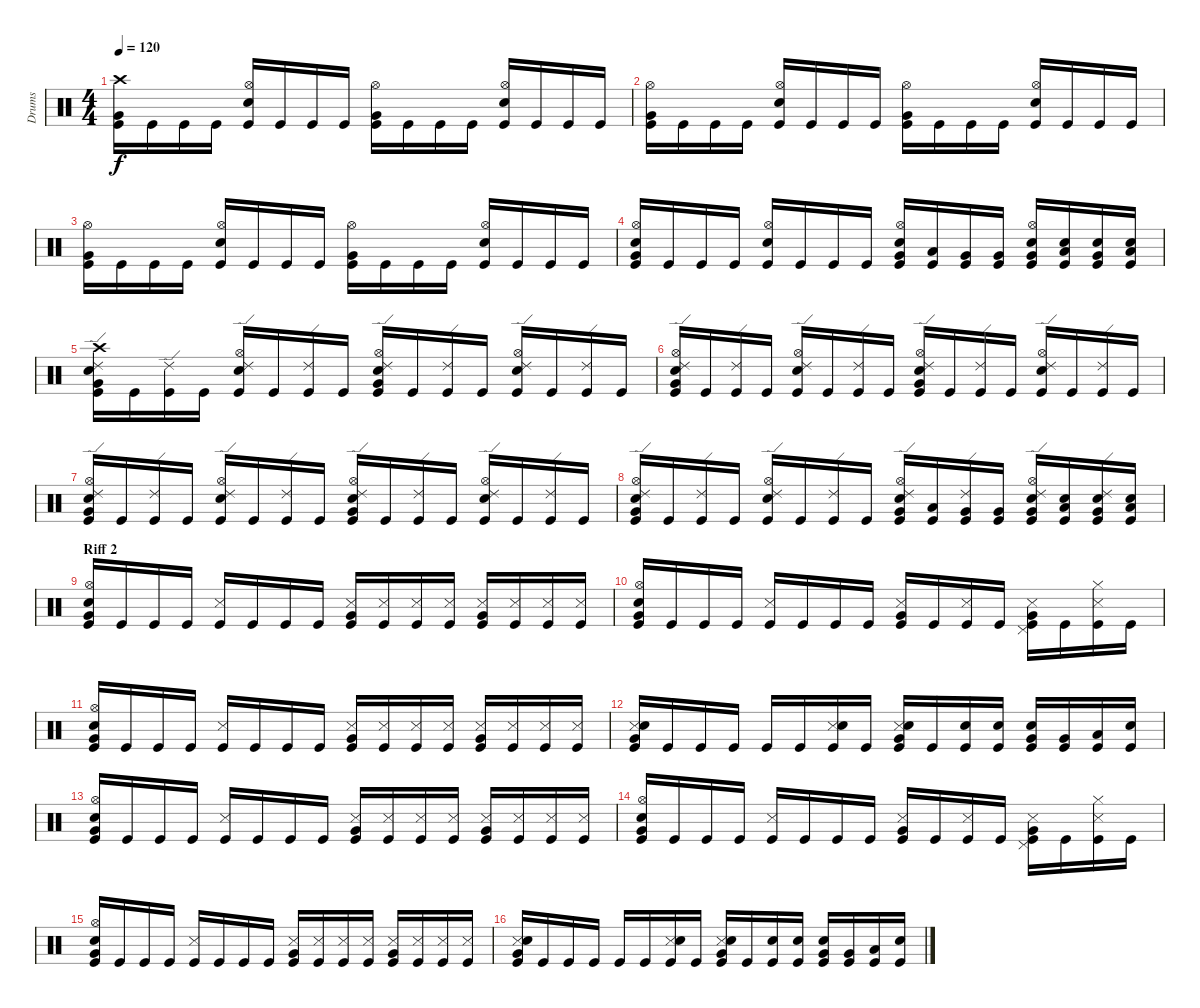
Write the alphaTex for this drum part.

\track ("Drums" "Drums") {instrument percussion}
\staff {score}
\articulation defaults
\ts (4 4)
\tempo 120
\clef neutral
\ks c
("Crash high (hit)" "Very Low Tom (hit)" "Kick (hit)").16{dy f} "Kick (hit)".16 "Kick (hit)".16 "Kick (hit)".16 ("Hi-Hat (open)" "Snare (hit) 2" "Kick (hit)").16 "Kick (hit)".16 "Kick (hit)".16 "Kick (hit)".16 ("Hi-Hat (open)" "Very Low Tom (hit)" "Kick (hit)").16 "Kick (hit)".16 "Kick (hit)".16 "Kick (hit)".16 ("Hi-Hat (open)" "Snare (hit) 2" "Kick (hit)").16 "Kick (hit)".16 "Kick (hit)".16 "Kick (hit)".16 |
("Hi-Hat (open)" "Very Low Tom (hit)" "Kick (hit)").16 "Kick (hit)".16 "Kick (hit)".16 "Kick (hit)".16 ("Hi-Hat (open)" "Snare (hit) 2" "Kick (hit)").16 "Kick (hit)".16 "Kick (hit)".16 "Kick (hit)".16 ("Hi-Hat (open)" "Very Low Tom (hit)" "Kick (hit)").16 "Kick (hit)".16 "Kick (hit)".16 "Kick (hit)".16 ("Hi-Hat (open)" "Snare (hit) 2" "Kick (hit)").16 "Kick (hit)".16 "Kick (hit)".16 "Kick (hit)".16 |
("Hi-Hat (open)" "Very Low Tom (hit)" "Kick (hit)").16 "Kick (hit)".16 "Kick (hit)".16 "Kick (hit)".16 ("Hi-Hat (open)" "Snare (hit) 2" "Kick (hit)").16 "Kick (hit)".16 "Kick (hit)".16 "Kick (hit)".16 ("Hi-Hat (open)" "Very Low Tom (hit)" "Kick (hit)").16 "Kick (hit)".16 "Kick (hit)".16 "Kick (hit)".16 ("Hi-Hat (open)" "Snare (hit) 2" "Kick (hit)").16 "Kick (hit)".16 "Kick (hit)".16 "Kick (hit)".16 |
("Hi-Hat (open)" "Snare (hit) 2" "Very Low Tom (hit)" "Kick (hit)").16 "Kick (hit)".16 "Kick (hit)".16 "Kick (hit)".16 ("Hi-Hat (open)" "Snare (hit) 2" "Kick (hit)").16 "Kick (hit)".16 "Kick (hit)".16 "Kick (hit)".16 ("Hi-Hat (open)" "Snare (hit) 2" "Very Low Tom (hit)" "Kick (hit)").16 ("Low Tom (hit)" "Kick (hit)").16 ("Very Low Tom (hit)" "Kick (hit)").16 ("Very Low Tom (hit)" "Kick (hit)").16 ("Hi-Hat (open)" "Snare (hit) 2" "Very Low Tom (hit)" "Kick (hit)").16 ("Snare (hit) 2" "Low Tom (hit)" "Kick (hit)").16 ("Snare (hit) 2" "Very Low Tom (hit)" "Kick (hit)").16 ("Snare (hit) 2" "Low Floor Tom (hit)" "Kick (hit)").16 |
("Crash high (hit)" "Ride (edge) 2" "Snare (hit) 2" "Very Low Tom (hit)" "Kick (hit)").16 "Kick (hit)".16 ("Ride (edge) 2" "Kick (hit)").16 "Kick (hit)".16 ("Hi-Hat (open)" "Ride (edge) 2" "Snare (hit) 2" "Kick (hit)").16 "Kick (hit)".16 ("Ride (edge) 2" "Kick (hit)").16 "Kick (hit)".16 ("Hi-Hat (open)" "Ride (edge) 2" "Snare (hit) 2" "Very Low Tom (hit)" "Kick (hit)").16 "Kick (hit)".16 ("Ride (edge) 2" "Kick (hit)").16 "Kick (hit)".16 ("Hi-Hat (open)" "Ride (edge) 2" "Snare (hit) 2" "Kick (hit)").16 "Kick (hit)".16 ("Ride (edge) 2" "Kick (hit)").16 "Kick (hit)".16 |
("Hi-Hat (open)" "Ride (edge) 2" "Snare (hit) 2" "Very Low Tom (hit)" "Kick (hit)").16 "Kick (hit)".16 ("Ride (edge) 2" "Kick (hit)").16 "Kick (hit)".16 ("Hi-Hat (open)" "Ride (edge) 2" "Snare (hit) 2" "Kick (hit)").16 "Kick (hit)".16 ("Ride (edge) 2" "Kick (hit)").16 "Kick (hit)".16 ("Hi-Hat (open)" "Ride (edge) 2" "Snare (hit) 2" "Very Low Tom (hit)" "Kick (hit)").16 "Kick (hit)".16 ("Ride (edge) 2" "Kick (hit)").16 "Kick (hit)".16 ("Hi-Hat (open)" "Ride (edge) 2" "Snare (hit) 2" "Kick (hit)").16 "Kick (hit)".16 ("Ride (edge) 2" "Kick (hit)").16 "Kick (hit)".16 |
("Hi-Hat (open)" "Ride (edge) 2" "Snare (hit) 2" "Very Low Tom (hit)" "Kick (hit)").16 "Kick (hit)".16 ("Ride (edge) 2" "Kick (hit)").16 "Kick (hit)".16 ("Hi-Hat (open)" "Ride (edge) 2" "Snare (hit) 2" "Kick (hit)").16 "Kick (hit)".16 ("Ride (edge) 2" "Kick (hit)").16 "Kick (hit)".16 ("Hi-Hat (open)" "Ride (edge) 2" "Snare (hit) 2" "Very Low Tom (hit)" "Kick (hit)").16 "Kick (hit)".16 ("Ride (edge) 2" "Kick (hit)").16 "Kick (hit)".16 ("Hi-Hat (open)" "Ride (edge) 2" "Snare (hit) 2" "Kick (hit)").16 "Kick (hit)".16 ("Ride (edge) 2" "Kick (hit)").16 "Kick (hit)".16 |
("Hi-Hat (open)" "Ride (edge) 2" "Snare (hit) 2" "Very Low Tom (hit)" "Kick (hit)").16 "Kick (hit)".16 ("Ride (edge) 2" "Kick (hit)").16 "Kick (hit)".16 ("Hi-Hat (open)" "Ride (edge) 2" "Snare (hit) 2" "Kick (hit)").16 "Kick (hit)".16 ("Ride (edge) 2" "Kick (hit)").16 "Kick (hit)".16 ("Hi-Hat (open)" "Ride (edge) 2" "Snare (hit) 2" "Very Low Tom (hit)" "Kick (hit)").16 ("Low Tom (hit)" "Kick (hit)").16 ("Ride (edge) 2" "Very Low Tom (hit)" "Kick (hit)").16 ("Very Low Tom (hit)" "Kick (hit)").16 ("Hi-Hat (open)" "Ride (edge) 2" "Snare (hit) 2" "Very Low Tom (hit)" "Kick (hit)").16 ("Snare (hit) 2" "Low Tom (hit)" "Kick (hit)").16 ("Ride (edge) 2" "Snare (hit) 2" "Very Low Tom (hit)" "Kick (hit)").16 ("Snare (hit) 2" "Low Floor Tom (hit)" "Kick (hit)").16 |
\section ("" "Riff 2")
("Hi-Hat (open)" "Snare (hit) 2" "Very Low Tom (hit)" "Kick (hit)").16 "Kick (hit)".16 "Kick (hit)".16 "Kick (hit)".16 ("Snare (side stick) 3" "Kick (hit)").16 "Kick (hit)".16 "Kick (hit)".16 "Kick (hit)".16 ("Snare (side stick) 3" "Very Low Tom (hit)" "Kick (hit)").16 ("Snare (side stick) 3" "Kick (hit)").16 ("Snare (side stick) 3" "Kick (hit)").16 ("Snare (side stick) 3" "Kick (hit)").16 ("Snare (side stick) 3" "Very Low Tom (hit)" "Kick (hit)").16 ("Snare (side stick) 3" "Kick (hit)").16 ("Snare (side stick) 3" "Kick (hit)").16 ("Snare (side stick) 3" "Kick (hit)").16 |
("Hi-Hat (open)" "Snare (hit) 2" "Very Low Tom (hit)" "Kick (hit)").16 "Kick (hit)".16 "Kick (hit)".16 "Kick (hit)".16 ("Snare (side stick) 3" "Kick (hit)").16 "Kick (hit)".16 "Kick (hit)".16 "Kick (hit)".16 ("Snare (side stick) 3" "Very Low Tom (hit)" "Kick (hit)").16 "Kick (hit)".16 ("Snare (side stick) 3" "Kick (hit)").16 "Kick (hit)".16 ("Pedal Hi-Hat (hit)" "Snare (side stick) 3" "Very Low Tom (hit)" "Kick (hit)").16 "Kick (hit)".16 ("Hi-Hat (closed)" "Snare (side stick) 3" "Kick (hit)").16 "Kick (hit)".16 |
("Hi-Hat (open)" "Snare (hit) 2" "Very Low Tom (hit)" "Kick (hit)").16 "Kick (hit)".16 "Kick (hit)".16 "Kick (hit)".16 ("Snare (side stick) 3" "Kick (hit)").16 "Kick (hit)".16 "Kick (hit)".16 "Kick (hit)".16 ("Snare (side stick) 3" "Very Low Tom (hit)" "Kick (hit)").16 ("Snare (side stick) 3" "Kick (hit)").16 ("Snare (side stick) 3" "Kick (hit)").16 ("Snare (side stick) 3" "Kick (hit)").16 ("Snare (side stick) 3" "Very Low Tom (hit)" "Kick (hit)").16 ("Snare (side stick) 3" "Kick (hit)").16 ("Snare (side stick) 3" "Kick (hit)").16 ("Snare (side stick) 3" "Kick (hit)").16 |
("Snare (side stick) 3" "Snare (hit) 2" "Very Low Tom (hit)" "Kick (hit)").16 "Kick (hit)".16 "Kick (hit)".16 "Kick (hit)".16 "Kick (hit)".16 "Kick (hit)".16 ("Snare (side stick) 3" "Snare (hit) 2" "Kick (hit)").16 "Kick (hit)".16 ("Snare (side stick) 3" "Snare (hit) 2" "Very Low Tom (hit)" "Kick (hit)").16 "Kick (hit)".16 ("Snare (hit) 2" "Kick (hit)").16 ("Snare (hit) 2" "Kick (hit)").16 ("Snare (hit) 2" "Very Low Tom (hit)" "Kick (hit)").16 ("Very Low Tom (hit)" "Kick (hit)").16 ("Low Floor Tom (hit)" "Kick (hit)").16 ("Snare (hit) 2" "Kick (hit)").16 |
("Hi-Hat (open)" "Snare (hit) 2" "Very Low Tom (hit)" "Kick (hit)").16 "Kick (hit)".16 "Kick (hit)".16 "Kick (hit)".16 ("Snare (side stick) 3" "Kick (hit)").16 "Kick (hit)".16 "Kick (hit)".16 "Kick (hit)".16 ("Snare (side stick) 3" "Very Low Tom (hit)" "Kick (hit)").16 ("Snare (side stick) 3" "Kick (hit)").16 ("Snare (side stick) 3" "Kick (hit)").16 ("Snare (side stick) 3" "Kick (hit)").16 ("Snare (side stick) 3" "Very Low Tom (hit)" "Kick (hit)").16 ("Snare (side stick) 3" "Kick (hit)").16 ("Snare (side stick) 3" "Kick (hit)").16 ("Snare (side stick) 3" "Kick (hit)").16 |
("Hi-Hat (open)" "Snare (hit) 2" "Very Low Tom (hit)" "Kick (hit)").16 "Kick (hit)".16 "Kick (hit)".16 "Kick (hit)".16 ("Snare (side stick) 3" "Kick (hit)").16 "Kick (hit)".16 "Kick (hit)".16 "Kick (hit)".16 ("Snare (side stick) 3" "Very Low Tom (hit)" "Kick (hit)").16 "Kick (hit)".16 ("Snare (side stick) 3" "Kick (hit)").16 "Kick (hit)".16 ("Pedal Hi-Hat (hit)" "Snare (side stick) 3" "Very Low Tom (hit)" "Kick (hit)").16 "Kick (hit)".16 ("Hi-Hat (closed)" "Snare (side stick) 3" "Kick (hit)").16 "Kick (hit)".16 |
("Hi-Hat (open)" "Snare (hit) 2" "Very Low Tom (hit)" "Kick (hit)").16 "Kick (hit)".16 "Kick (hit)".16 "Kick (hit)".16 ("Snare (side stick) 3" "Kick (hit)").16 "Kick (hit)".16 "Kick (hit)".16 "Kick (hit)".16 ("Snare (side stick) 3" "Very Low Tom (hit)" "Kick (hit)").16 ("Snare (side stick) 3" "Kick (hit)").16 ("Snare (side stick) 3" "Kick (hit)").16 ("Snare (side stick) 3" "Kick (hit)").16 ("Snare (side stick) 3" "Very Low Tom (hit)" "Kick (hit)").16 ("Snare (side stick) 3" "Kick (hit)").16 ("Snare (side stick) 3" "Kick (hit)").16 ("Snare (side stick) 3" "Kick (hit)").16 |
("Snare (side stick) 3" "Snare (hit) 2" "Very Low Tom (hit)" "Kick (hit)").16 "Kick (hit)".16 "Kick (hit)".16 "Kick (hit)".16 "Kick (hit)".16 "Kick (hit)".16 ("Snare (side stick) 3" "Snare (hit) 2" "Kick (hit)").16 "Kick (hit)".16 ("Snare (side stick) 3" "Snare (hit) 2" "Very Low Tom (hit)" "Kick (hit)").16 "Kick (hit)".16 ("Snare (hit) 2" "Kick (hit)").16 ("Snare (hit) 2" "Kick (hit)").16 ("Snare (hit) 2" "Very Low Tom (hit)" "Kick (hit)").16 ("Very Low Tom (hit)" "Kick (hit)").16 ("Low Floor Tom (hit)" "Kick (hit)").16 ("Snare (hit) 2" "Kick (hit)").16
